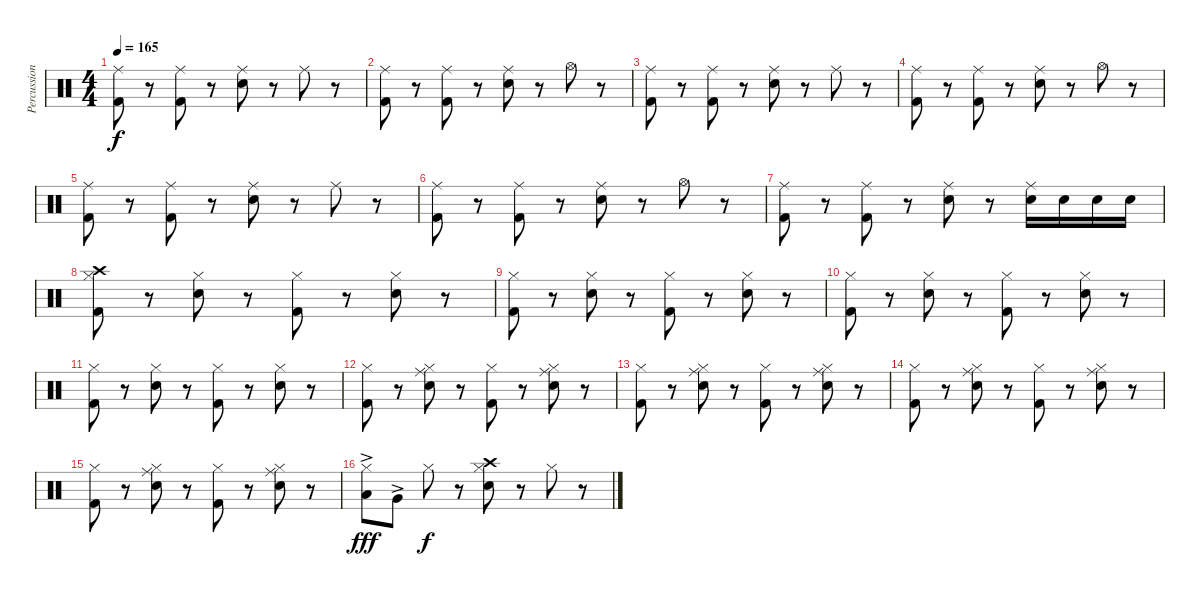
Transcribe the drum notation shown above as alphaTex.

\track ("Percussions" "Percussion") {instrument percussion}
\staff {score}
\articulation defaults
\ts (4 4)
\tempo 165
\clef neutral
\ks c
("Kick (hit) 2" "Ride (middle)").8{dy f} r.8 ("Kick (hit) 2" "Ride (middle)").8 r.8 ("Electric Snare (hit)" "Ride (middle)").8 r.8 "Ride (middle)".8 r.8 |
("Kick (hit) 2" "Ride (middle)").8 r.8 ("Kick (hit) 2" "Ride (middle)").8 r.8 ("Electric Snare (hit)" "Ride (middle)").8 r.8 "Hi-Hat (open)".8 r.8 |
("Kick (hit) 2" "Ride (middle)").8 r.8 ("Kick (hit) 2" "Ride (middle)").8 r.8 ("Electric Snare (hit)" "Ride (middle)").8 r.8 "Ride (middle)".8 r.8 |
("Kick (hit) 2" "Ride (middle)").8 r.8 ("Kick (hit) 2" "Ride (middle)").8 r.8 ("Electric Snare (hit)" "Ride (middle)").8 r.8 "Hi-Hat (open)".8 r.8 |
("Kick (hit) 2" "Ride (middle)").8 r.8 ("Kick (hit) 2" "Ride (middle)").8 r.8 ("Electric Snare (hit)" "Ride (middle)").8 r.8 "Ride (middle)".8 r.8 |
("Kick (hit) 2" "Ride (middle)").8 r.8 ("Kick (hit) 2" "Ride (middle)").8 r.8 ("Electric Snare (hit)" "Ride (middle)").8 r.8 "Hi-Hat (open)".8 r.8 |
("Kick (hit) 2" "Ride (middle)").8 r.8 ("Kick (hit) 2" "Ride (middle)").8 r.8 ("Electric Snare (hit)" "Ride (middle)").8 r.8 ("Electric Snare (hit)" "Ride (middle)").16 "Electric Snare (hit)".16 "Electric Snare (hit)".16 "Electric Snare (hit)".16 |
("Kick (hit) 2" "Crash high (hit)" "Hi-Hat (closed)").8 r.8 ("Electric Snare (hit)" "Hi-Hat (closed)").8 r.8 ("Kick (hit) 2" "Hi-Hat (closed)").8 r.8 ("Electric Snare (hit)" "Hi-Hat (closed)").8 r.8 |
("Kick (hit) 2" "Hi-Hat (closed)").8 r.8 ("Electric Snare (hit)" "Hi-Hat (closed)").8 r.8 ("Kick (hit) 2" "Hi-Hat (closed)").8 r.8 ("Electric Snare (hit)" "Hi-Hat (closed)").8 r.8 |
("Kick (hit) 2" "Hi-Hat (closed)").8 r.8 ("Electric Snare (hit)" "Hi-Hat (closed)").8 r.8 ("Kick (hit) 2" "Hi-Hat (closed)").8 r.8 ("Electric Snare (hit)" "Hi-Hat (closed)").8 r.8 |
("Kick (hit) 2" "Hi-Hat (closed)").8 r.8 ("Electric Snare (hit)" "Hi-Hat (closed)").8 r.8 ("Kick (hit) 2" "Hi-Hat (closed)").8 r.8 ("Electric Snare (hit)" "Hi-Hat (closed)").8 r.8 |
("Kick (hit) 2" "Hi-Hat (closed)").8 r.8 ("Electric Snare (hit)" "Ride (middle)" "Hi-Hat (closed)").8 r.8 ("Kick (hit) 2" "Hi-Hat (closed)").8 r.8 ("Electric Snare (hit)" "Ride (middle)" "Hi-Hat (closed)").8 r.8 |
("Kick (hit) 2" "Hi-Hat (closed)").8 r.8 ("Electric Snare (hit)" "Ride (middle)" "Hi-Hat (closed)").8 r.8 ("Kick (hit) 2" "Hi-Hat (closed)").8 r.8 ("Electric Snare (hit)" "Ride (middle)" "Hi-Hat (closed)").8 r.8 |
("Kick (hit) 2" "Hi-Hat (closed)").8 r.8 ("Electric Snare (hit)" "Ride (middle)" "Hi-Hat (closed)").8 r.8 ("Kick (hit) 2" "Hi-Hat (closed)").8 r.8 ("Electric Snare (hit)" "Ride (middle)" "Hi-Hat (closed)").8 r.8 |
("Kick (hit) 2" "Hi-Hat (closed)").8 r.8 ("Electric Snare (hit)" "Ride (middle)" "Hi-Hat (closed)").8 r.8 ("Kick (hit) 2" "Hi-Hat (closed)").8 r.8 ("Electric Snare (hit)" "Ride (middle)" "Hi-Hat (closed)").8 r.8 |
("Low Tom (hit)"{ac} "Hi-Hat (closed)").8{dy fff} "Very Low Tom (hit)"{ac}.8 "Hi-Hat (closed)".8{dy f} r.8 ("Crash high (hit)" "Electric Snare (hit)" "Hi-Hat (closed)").8 r.8 "Hi-Hat (closed)".8 r.8
